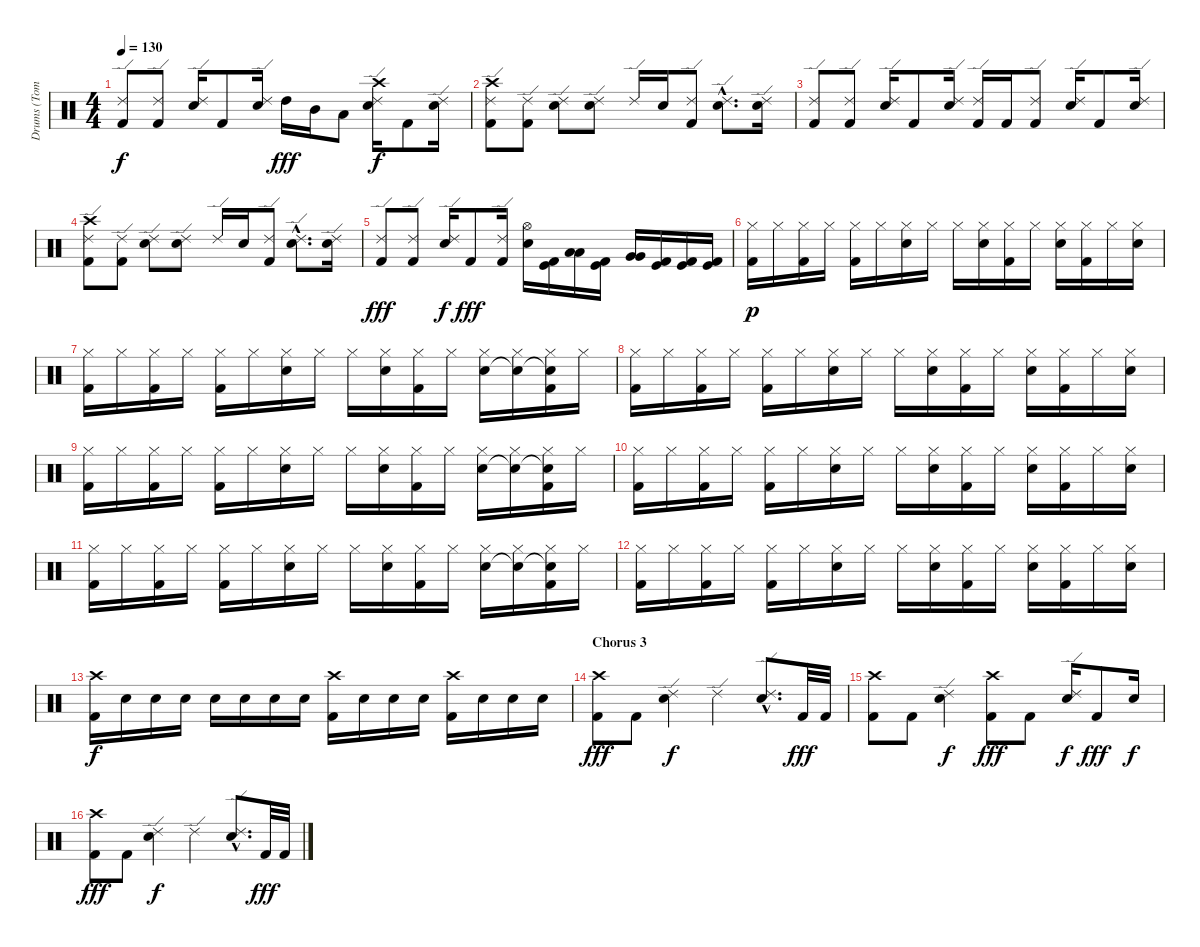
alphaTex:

\track ("Drums (Tommy Decker)" "Drums (Tom") {instrument percussion}
\staff {score}
\articulation defaults
\ts (4 4)
\tempo 130
\clef neutral
\ks c
("Ride (edge) 2" "Kick (hit) 2").8{dy f} ("Ride (edge) 2" "Kick (hit) 2").8 ("Ride (edge) 2" "Electric Snare (hit)").16 "Kick (hit) 2".8 ("Ride (edge) 2" "Electric Snare (hit)").16 "High Tom (hit)".16{dy fff} "Mid Tom (hit)".16 "Low Tom (hit)".8 ("Ride (edge) 2" "Crash high (hit)" "Electric Snare (hit)").16{dy f} "Kick (hit) 2".8 ("Ride (edge) 2" "Electric Snare (hit)").16 |
("Ride (edge) 2" "Crash high (hit)" "Kick (hit) 2").8 ("Ride (edge) 2" "Kick (hit) 2").8 ("Ride (edge) 2" "Electric Snare (hit)").8 ("Ride (edge) 2" "Electric Snare (hit)").8 "Ride (edge) 2".16 "Electric Snare (hit)".16 ("Ride (edge) 2" "Kick (hit) 2").8 ("Ride (edge) 2"{hac} "Electric Snare (hit)"{hac}).8{d} ("Ride (edge) 2" "Electric Snare (hit)").16 |
("Ride (edge) 2" "Kick (hit) 2").8 ("Ride (edge) 2" "Kick (hit) 2").8 ("Ride (edge) 2" "Electric Snare (hit)").16 "Kick (hit) 2".8 ("Ride (edge) 2" "Electric Snare (hit)").16 ("Ride (edge) 2" "Kick (hit) 2").16 "Kick (hit) 2".16 ("Ride (edge) 2" "Kick (hit) 2").8 ("Ride (edge) 2" "Electric Snare (hit)").16 "Kick (hit) 2".8 ("Ride (edge) 2" "Electric Snare (hit)").16 |
("Ride (edge) 2" "Crash high (hit)" "Kick (hit) 2").8 ("Ride (edge) 2" "Kick (hit) 2").8 ("Ride (edge) 2" "Electric Snare (hit)").8 ("Ride (edge) 2" "Electric Snare (hit)").8 "Ride (edge) 2".16 "Electric Snare (hit)".16 ("Ride (edge) 2" "Kick (hit) 2").8 ("Ride (edge) 2"{hac} "Electric Snare (hit)"{hac}).8{d} ("Ride (edge) 2" "Electric Snare (hit)").16 |
("Ride (edge) 2" "Kick (hit) 2").8{dy fff} ("Ride (edge) 2" "Kick (hit) 2").8 ("Ride (edge) 2" "Electric Snare (hit)").16{dy f} "Kick (hit) 2".8{dy fff} ("Ride (edge) 2" "Kick (hit) 2").16 ("Hi-Hat (open)" "Electric Snare (hit)").16 ("Kick (hit)" "Kick (hit) 2").16 ("Low Tom (hit)" "Low Tom (hit)").16 ("Kick (hit)" "Kick (hit) 2").16 ("Very Low Tom (hit)" "Very Low Tom (hit)").16 ("Kick (hit)" "Kick (hit) 2").16 ("Kick (hit)" "Kick (hit) 2").16 ("Kick (hit)" "Kick (hit) 2").16 |
("Hi-Hat (closed)" "Kick (hit) 2").16{dy p} "Hi-Hat (closed)".16 ("Hi-Hat (closed)" "Kick (hit) 2").16 "Hi-Hat (closed)".16 ("Hi-Hat (closed)" "Kick (hit) 2").16 "Hi-Hat (closed)".16 ("Hi-Hat (closed)" "Electric Snare (hit)").16 "Hi-Hat (closed)".16 "Hi-Hat (closed)".16 ("Hi-Hat (closed)" "Electric Snare (hit)").16 ("Hi-Hat (closed)" "Kick (hit) 2").16 "Hi-Hat (closed)".16 ("Hi-Hat (closed)" "Electric Snare (hit)").16 ("Hi-Hat (closed)" "Kick (hit) 2").16 "Hi-Hat (closed)".16 ("Hi-Hat (closed)" "Electric Snare (hit)").16 |
("Hi-Hat (closed)" "Kick (hit) 2").16 "Hi-Hat (closed)".16 ("Hi-Hat (closed)" "Kick (hit) 2").16 "Hi-Hat (closed)".16 ("Hi-Hat (closed)" "Kick (hit) 2").16 "Hi-Hat (closed)".16 ("Hi-Hat (closed)" "Electric Snare (hit)").16 "Hi-Hat (closed)".16 "Hi-Hat (closed)".16 ("Hi-Hat (closed)" "Electric Snare (hit)").16 ("Hi-Hat (closed)" "Kick (hit) 2").16 "Hi-Hat (closed)".16 ("Hi-Hat (closed)" "Electric Snare (hit)").16 ("Hi-Hat (closed)" "Snare (hit)"{t}).16 ("Hi-Hat (closed)" "Snare (hit)"{t} "Kick (hit) 2").16 "Hi-Hat (closed)".16 |
("Hi-Hat (closed)" "Kick (hit) 2").16 "Hi-Hat (closed)".16 ("Hi-Hat (closed)" "Kick (hit) 2").16 "Hi-Hat (closed)".16 ("Hi-Hat (closed)" "Kick (hit) 2").16 "Hi-Hat (closed)".16 ("Hi-Hat (closed)" "Electric Snare (hit)").16 "Hi-Hat (closed)".16 "Hi-Hat (closed)".16 ("Hi-Hat (closed)" "Electric Snare (hit)").16 ("Hi-Hat (closed)" "Kick (hit) 2").16 "Hi-Hat (closed)".16 ("Hi-Hat (closed)" "Electric Snare (hit)").16 ("Hi-Hat (closed)" "Kick (hit) 2").16 "Hi-Hat (closed)".16 ("Hi-Hat (closed)" "Electric Snare (hit)").16 |
("Hi-Hat (closed)" "Kick (hit) 2").16 "Hi-Hat (closed)".16 ("Hi-Hat (closed)" "Kick (hit) 2").16 "Hi-Hat (closed)".16 ("Hi-Hat (closed)" "Kick (hit) 2").16 "Hi-Hat (closed)".16 ("Hi-Hat (closed)" "Electric Snare (hit)").16 "Hi-Hat (closed)".16 "Hi-Hat (closed)".16 ("Hi-Hat (closed)" "Electric Snare (hit)").16 ("Hi-Hat (closed)" "Kick (hit) 2").16 "Hi-Hat (closed)".16 ("Hi-Hat (closed)" "Electric Snare (hit)").16 ("Hi-Hat (closed)" "Snare (hit)"{t}).16 ("Hi-Hat (closed)" "Snare (hit)"{t} "Kick (hit) 2").16 "Hi-Hat (closed)".16 |
("Hi-Hat (closed)" "Kick (hit) 2").16 "Hi-Hat (closed)".16 ("Hi-Hat (closed)" "Kick (hit) 2").16 "Hi-Hat (closed)".16 ("Hi-Hat (closed)" "Kick (hit) 2").16 "Hi-Hat (closed)".16 ("Hi-Hat (closed)" "Electric Snare (hit)").16 "Hi-Hat (closed)".16 "Hi-Hat (closed)".16 ("Hi-Hat (closed)" "Electric Snare (hit)").16 ("Hi-Hat (closed)" "Kick (hit) 2").16 "Hi-Hat (closed)".16 ("Hi-Hat (closed)" "Electric Snare (hit)").16 ("Hi-Hat (closed)" "Kick (hit) 2").16 "Hi-Hat (closed)".16 ("Hi-Hat (closed)" "Electric Snare (hit)").16 |
("Hi-Hat (closed)" "Kick (hit) 2").16 "Hi-Hat (closed)".16 ("Hi-Hat (closed)" "Kick (hit) 2").16 "Hi-Hat (closed)".16 ("Hi-Hat (closed)" "Kick (hit) 2").16 "Hi-Hat (closed)".16 ("Hi-Hat (closed)" "Electric Snare (hit)").16 "Hi-Hat (closed)".16 "Hi-Hat (closed)".16 ("Hi-Hat (closed)" "Electric Snare (hit)").16 ("Hi-Hat (closed)" "Kick (hit) 2").16 "Hi-Hat (closed)".16 ("Hi-Hat (closed)" "Electric Snare (hit)").16 ("Hi-Hat (closed)" "Snare (hit)"{t}).16 ("Hi-Hat (closed)" "Snare (hit)"{t} "Kick (hit) 2").16 "Hi-Hat (closed)".16 |
("Hi-Hat (closed)" "Kick (hit) 2").16 "Hi-Hat (closed)".16 ("Hi-Hat (closed)" "Kick (hit) 2").16 "Hi-Hat (closed)".16 ("Hi-Hat (closed)" "Kick (hit) 2").16 "Hi-Hat (closed)".16 ("Hi-Hat (closed)" "Electric Snare (hit)").16 "Hi-Hat (closed)".16 "Hi-Hat (closed)".16 ("Hi-Hat (closed)" "Electric Snare (hit)").16 ("Hi-Hat (closed)" "Kick (hit) 2").16 "Hi-Hat (closed)".16 ("Hi-Hat (closed)" "Electric Snare (hit)").16 ("Hi-Hat (closed)" "Kick (hit) 2").16 "Hi-Hat (closed)".16 ("Hi-Hat (closed)" "Electric Snare (hit)").16 |
("Crash high (hit)" "Kick (hit) 2").16{dy f} "Electric Snare (hit)".16 "Electric Snare (hit)".16 "Electric Snare (hit)".16 "Electric Snare (hit)".16 "Electric Snare (hit)".16 "Electric Snare (hit)".16 "Electric Snare (hit)".16 ("Crash high (hit)" "Kick (hit) 2").16 "Electric Snare (hit)".16 "Electric Snare (hit)".16 "Electric Snare (hit)".16 ("Crash high (hit)" "Kick (hit) 2").16 "Electric Snare (hit)".16 "Electric Snare (hit)".16 "Electric Snare (hit)".16 |
\section ("" "Chorus 3")
("Crash high (hit)" "Kick (hit) 2").8{dy fff} "Kick (hit) 2".8 ("Ride (edge) 2" "Electric Snare (hit)").4{dy f} "Ride (edge) 2".4 ("Ride (edge) 2"{hac} "Electric Snare (hit)"{hac}).8{d} "Kick (hit) 2".32{dy fff} "Kick (hit) 2".32 |
("Crash high (hit)" "Kick (hit) 2").8 "Kick (hit) 2".8 ("Ride (edge) 2" "Electric Snare (hit)").4{dy f} ("Crash high (hit)" "Kick (hit) 2").8{dy fff} "Kick (hit) 2".8 ("Ride (edge) 2" "Electric Snare (hit)").16{dy f} "Kick (hit) 2".8{dy fff} "Electric Snare (hit)".16{dy f} |
("Crash high (hit)" "Kick (hit) 2").8{dy fff} "Kick (hit) 2".8 ("Ride (edge) 2" "Electric Snare (hit)").4{dy f} "Ride (edge) 2".4 ("Ride (edge) 2"{hac} "Electric Snare (hit)"{hac}).8{d} "Kick (hit) 2".32{dy fff} "Kick (hit) 2".32
